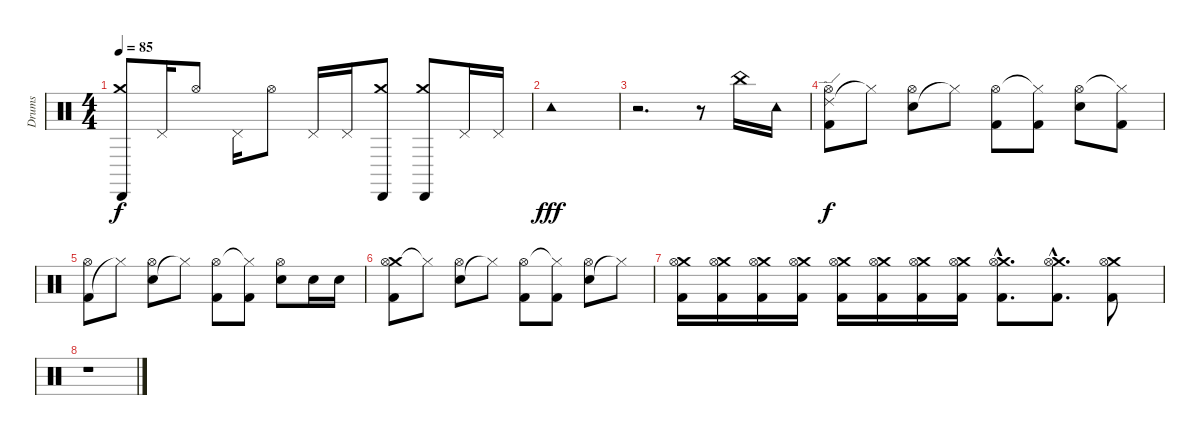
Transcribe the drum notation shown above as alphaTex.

\track ("Drums" "Drums") {instrument percussion}
\staff {score}
\articulation defaults
\ts (4 4)
\tempo 85
\clef neutral
\ks c
("Crash medium (hit)" "Cabasa (hit)").8{dy f} "Pedal Hi-Hat (hit)".16 "Hi-Hat (open)".8 "Pedal Hi-Hat (hit)".16 "Hi-Hat (open)".8 "Pedal Hi-Hat (hit)".16 "Pedal Hi-Hat (hit)".16 ("Crash medium (hit)" "Cabasa (hit)").8 ("Crash medium (hit)" "Cabasa (hit)").8 "Pedal Hi-Hat (hit)".16 "Pedal Hi-Hat (hit)".16 |
"Tambourine (hit)".1{dy fff} |
r.2{d} r.8 "China (hit)".16 "Tambourine (hit)".16 |
("Ride (edge) 2" "Kick (hit) 2" "Hi-Hat (open)").8{dy f} "Hi-Hat (closed)"{t}.8 ("Electric Snare (hit)" "Hi-Hat (open)").8 "Hi-Hat (closed)"{t}.8 ("Kick (hit) 2" "Hi-Hat (open)").8 ("Kick (hit) 2" "Hi-Hat (closed)"{t}).8 ("Electric Snare (hit)" "Hi-Hat (open)").8 ("Kick (hit) 2" "Hi-Hat (closed)"{t}).8 |
("Kick (hit) 2" "Hi-Hat (open)").8 "Hi-Hat (closed)"{t}.8 ("Electric Snare (hit)" "Hi-Hat (open)").8 "Hi-Hat (closed)"{t}.8 ("Kick (hit) 2" "Hi-Hat (open)").8 ("Kick (hit) 2" "Hi-Hat (closed)"{t}).8 ("Electric Snare (hit)" "Hi-Hat (open)").8 "Electric Snare (hit)".16 "Electric Snare (hit)".16 |
("Crash medium (hit)" "Kick (hit) 2" "Hi-Hat (open)").8 "Hi-Hat (closed)"{t}.8 ("Electric Snare (hit)" "Hi-Hat (open)").8 "Hi-Hat (closed)"{t}.8 ("Kick (hit) 2" "Hi-Hat (open)").8 ("Kick (hit) 2" "Hi-Hat (closed)"{t}).8 ("Electric Snare (hit)" "Hi-Hat (open)").8 "Hi-Hat (closed)"{t}.8 |
("Crash medium (hit)" "Kick (hit) 2" "Hi-Hat (open)").16 ("Crash medium (hit)" "Kick (hit) 2" "Hi-Hat (open)").16 ("Crash medium (hit)" "Kick (hit) 2" "Hi-Hat (open)").16 ("Crash medium (hit)" "Kick (hit) 2" "Hi-Hat (open)").16 ("Crash medium (hit)" "Kick (hit) 2" "Hi-Hat (open)").16 ("Crash medium (hit)" "Kick (hit) 2" "Hi-Hat (open)").16 ("Crash medium (hit)" "Kick (hit) 2" "Hi-Hat (open)").16 ("Crash medium (hit)" "Kick (hit) 2" "Hi-Hat (open)").16 ("Crash medium (hit)"{hac} "Kick (hit) 2"{hac} "Hi-Hat (open)"{hac}).8{d} ("Crash medium (hit)"{hac} "Kick (hit) 2"{hac} "Hi-Hat (open)"{hac}).8{d} ("Crash medium (hit)" "Kick (hit) 2" "Hi-Hat (open)").8 |
r.1
